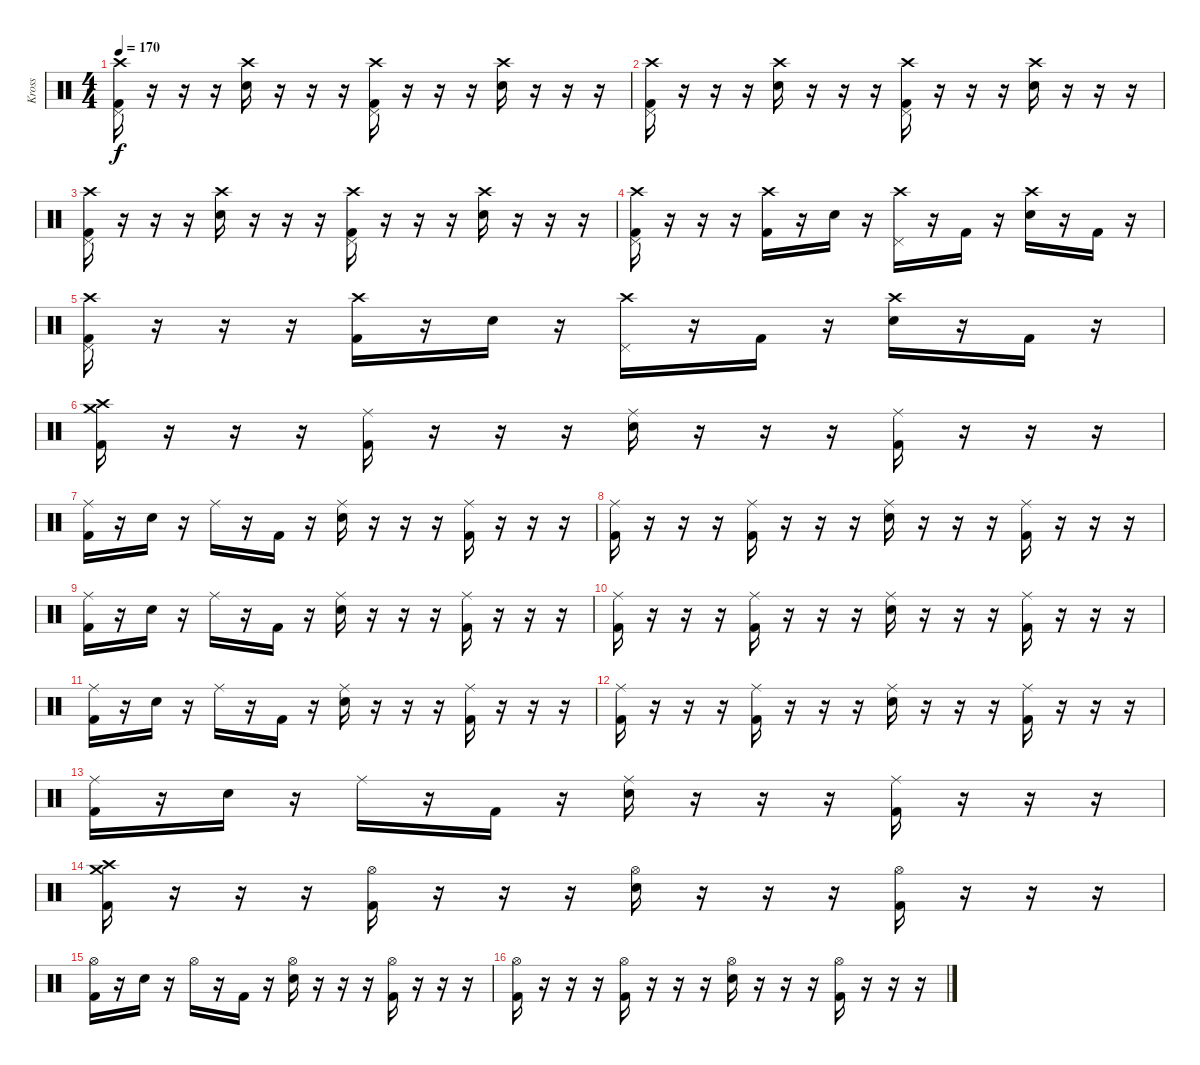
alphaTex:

\track ("Kross" "Kross") {instrument percussion}
\staff {score}
\articulation defaults
\ts (4 4)
\tempo 170
\clef neutral
\ks c
("Crash high (hit)" "Pedal Hi-Hat (hit)" "Kick (hit) 2").16{dy f} r.16 r.16 r.16 ("Crash high (hit)" "Electric Snare (hit)").16 r.16 r.16 r.16 ("Crash high (hit)" "Pedal Hi-Hat (hit)" "Kick (hit) 2").16 r.16 r.16 r.16 ("Crash high (hit)" "Electric Snare (hit)").16 r.16 r.16 r.16 |
("Crash high (hit)" "Pedal Hi-Hat (hit)" "Kick (hit) 2").16 r.16 r.16 r.16 ("Crash high (hit)" "Electric Snare (hit)").16 r.16 r.16 r.16 ("Crash high (hit)" "Pedal Hi-Hat (hit)" "Kick (hit) 2").16 r.16 r.16 r.16 ("Crash high (hit)" "Electric Snare (hit)").16 r.16 r.16 r.16 |
("Crash high (hit)" "Pedal Hi-Hat (hit)" "Kick (hit) 2").16 r.16 r.16 r.16 ("Crash high (hit)" "Electric Snare (hit)").16 r.16 r.16 r.16 ("Crash high (hit)" "Pedal Hi-Hat (hit)" "Kick (hit) 2").16 r.16 r.16 r.16 ("Crash high (hit)" "Electric Snare (hit)").16 r.16 r.16 r.16 |
("Pedal Hi-Hat (hit)" "Crash high (hit)" "Kick (hit) 2").16 r.16 r.16 r.16 ("Crash high (hit)" "Kick (hit) 2").16 r.16 "Electric Snare (hit)".16 r.16 ("Pedal Hi-Hat (hit)" "Crash high (hit)").16 r.16 "Kick (hit) 2".16 r.16 ("Crash high (hit)" "Electric Snare (hit)").16 r.16 "Kick (hit) 2".16 r.16 |
("Pedal Hi-Hat (hit)" "Crash high (hit)" "Kick (hit) 2").16 r.16 r.16 r.16 ("Crash high (hit)" "Kick (hit) 2").16 r.16 "Electric Snare (hit)".16 r.16 ("Pedal Hi-Hat (hit)" "Crash high (hit)").16 r.16 "Kick (hit) 2".16 r.16 ("Crash high (hit)" "Electric Snare (hit)").16 r.16 "Kick (hit) 2".16 r.16 |
("Crash medium (hit)" "Crash high (hit)" "Kick (hit) 2").16 r.16 r.16 r.16 ("Ride (middle)" "Kick (hit) 2").16 r.16 r.16 r.16 ("Ride (middle)" "Electric Snare (hit)").16 r.16 r.16 r.16 ("Ride (middle)" "Kick (hit) 2").16 r.16 r.16 r.16 |
("Ride (middle)" "Kick (hit) 2").16 r.16 "Electric Snare (hit)".16 r.16 "Ride (middle)".16 r.16 "Kick (hit) 2".16 r.16 ("Ride (middle)" "Electric Snare (hit)").16 r.16 r.16 r.16 ("Ride (middle)" "Kick (hit) 2").16 r.16 r.16 r.16 |
("Ride (middle)" "Kick (hit) 2").16 r.16 r.16 r.16 ("Ride (middle)" "Kick (hit) 2").16 r.16 r.16 r.16 ("Ride (middle)" "Electric Snare (hit)").16 r.16 r.16 r.16 ("Ride (middle)" "Kick (hit) 2").16 r.16 r.16 r.16 |
("Ride (middle)" "Kick (hit) 2").16 r.16 "Electric Snare (hit)".16 r.16 "Ride (middle)".16 r.16 "Kick (hit) 2".16 r.16 ("Ride (middle)" "Electric Snare (hit)").16 r.16 r.16 r.16 ("Ride (middle)" "Kick (hit) 2").16 r.16 r.16 r.16 |
("Ride (middle)" "Kick (hit) 2").16 r.16 r.16 r.16 ("Ride (middle)" "Kick (hit) 2").16 r.16 r.16 r.16 ("Ride (middle)" "Electric Snare (hit)").16 r.16 r.16 r.16 ("Ride (middle)" "Kick (hit) 2").16 r.16 r.16 r.16 |
("Ride (middle)" "Kick (hit) 2").16 r.16 "Electric Snare (hit)".16 r.16 "Ride (middle)".16 r.16 "Kick (hit) 2".16 r.16 ("Ride (middle)" "Electric Snare (hit)").16 r.16 r.16 r.16 ("Ride (middle)" "Kick (hit) 2").16 r.16 r.16 r.16 |
("Ride (middle)" "Kick (hit) 2").16 r.16 r.16 r.16 ("Ride (middle)" "Kick (hit) 2").16 r.16 r.16 r.16 ("Ride (middle)" "Electric Snare (hit)").16 r.16 r.16 r.16 ("Ride (middle)" "Kick (hit) 2").16 r.16 r.16 r.16 |
("Ride (middle)" "Kick (hit) 2").16 r.16 "Electric Snare (hit)".16 r.16 "Ride (middle)".16 r.16 "Kick (hit) 2".16 r.16 ("Ride (middle)" "Electric Snare (hit)").16 r.16 r.16 r.16 ("Ride (middle)" "Kick (hit) 2").16 r.16 r.16 r.16 |
("Crash high (hit)" "Crash medium (hit)" "Kick (hit) 2").16 r.16 r.16 r.16 ("Hi-Hat (open)" "Kick (hit) 2").16 r.16 r.16 r.16 ("Hi-Hat (open)" "Electric Snare (hit)").16 r.16 r.16 r.16 ("Hi-Hat (open)" "Kick (hit) 2").16 r.16 r.16 r.16 |
("Hi-Hat (open)" "Kick (hit) 2").16 r.16 "Electric Snare (hit)".16 r.16 "Hi-Hat (open)".16 r.16 "Kick (hit) 2".16 r.16 ("Hi-Hat (open)" "Electric Snare (hit)").16 r.16 r.16 r.16 ("Hi-Hat (open)" "Kick (hit) 2").16 r.16 r.16 r.16 |
("Hi-Hat (open)" "Kick (hit) 2").16 r.16 r.16 r.16 ("Hi-Hat (open)" "Kick (hit) 2").16 r.16 r.16 r.16 ("Hi-Hat (open)" "Electric Snare (hit)").16 r.16 r.16 r.16 ("Hi-Hat (open)" "Kick (hit) 2").16 r.16 r.16 r.16
